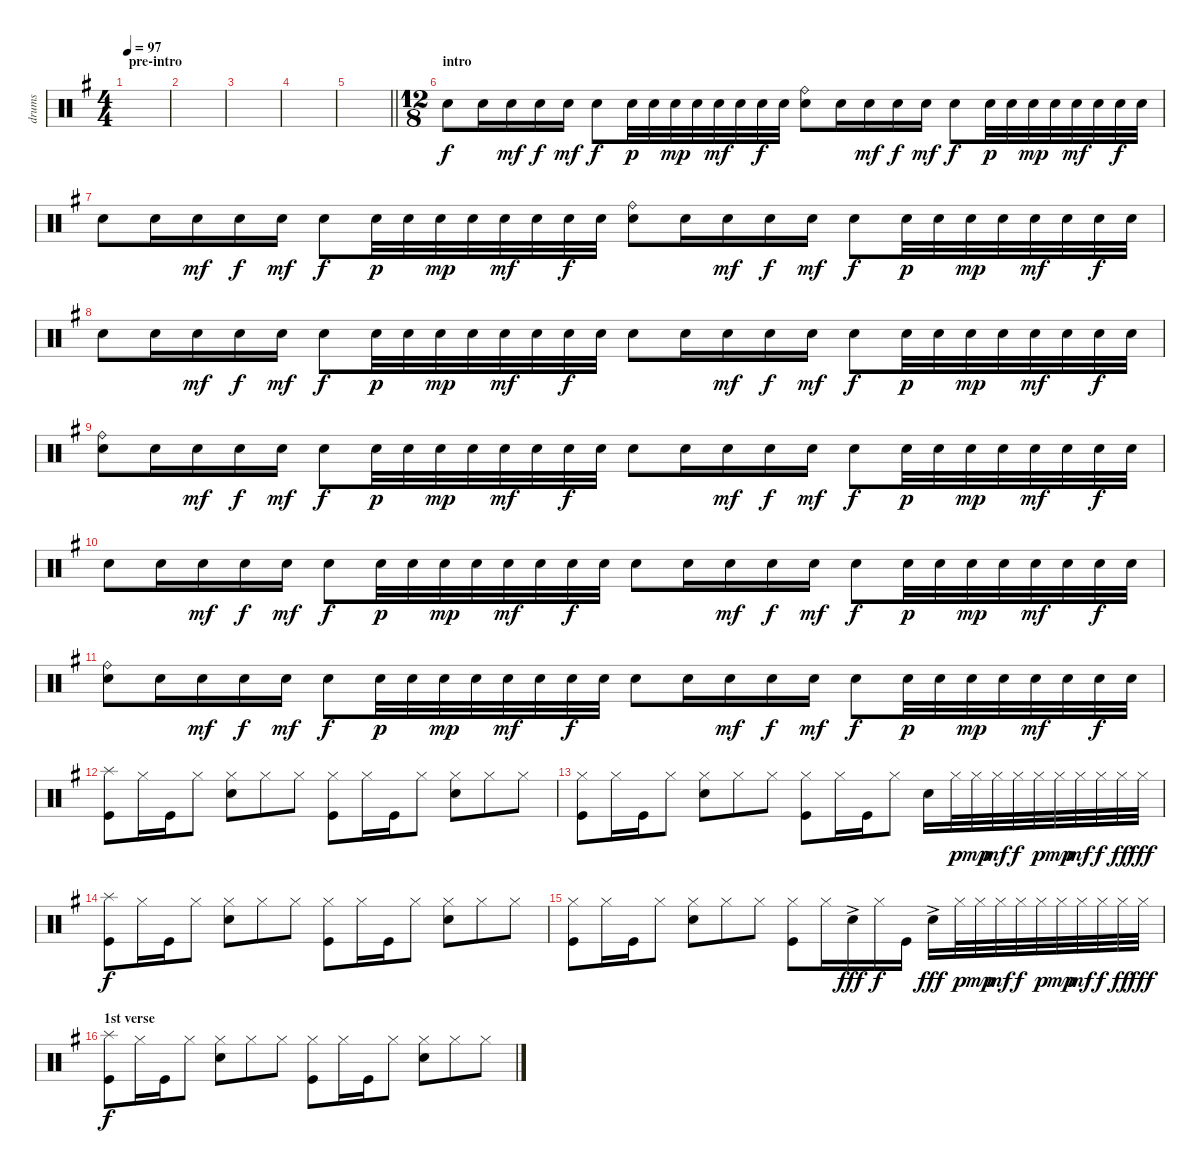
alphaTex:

\track ("drums" "drums") {instrument percussion}
\staff {score}
\articulation defaults
\ts (4 4)
\section ("" "pre-intro")
\tempo 97
\clef neutral
\ks g
|
|
|
|
\barLineRight lightlight
|
\ts (12 8)
\section ("" "intro")
"Electric Snare (hit)".8 "Electric Snare (hit)".16 "Electric Snare (hit)".16{dy mf} "Electric Snare (hit)".16{dy f} "Electric Snare (hit)".16{dy mf} "Electric Snare (hit)".8{dy f} "Electric Snare (hit)".32{dy p} "Electric Snare (hit)".32 "Electric Snare (hit)".32{dy mp} "Electric Snare (hit)".32 "Electric Snare (hit)".32{dy mf} "Electric Snare (hit)".32 "Electric Snare (hit)".32{dy f} "Electric Snare (hit)".32 ("Ride (bell)" "Electric Snare (hit)").8 "Electric Snare (hit)".16 "Electric Snare (hit)".16{dy mf} "Electric Snare (hit)".16{dy f} "Electric Snare (hit)".16{dy mf} "Electric Snare (hit)".8{dy f} "Electric Snare (hit)".32{dy p} "Electric Snare (hit)".32 "Electric Snare (hit)".32{dy mp} "Electric Snare (hit)".32 "Electric Snare (hit)".32{dy mf} "Electric Snare (hit)".32 "Electric Snare (hit)".32{dy f} "Electric Snare (hit)".32 |
"Electric Snare (hit)".8 "Electric Snare (hit)".16 "Electric Snare (hit)".16{dy mf} "Electric Snare (hit)".16{dy f} "Electric Snare (hit)".16{dy mf} "Electric Snare (hit)".8{dy f} "Electric Snare (hit)".32{dy p} "Electric Snare (hit)".32 "Electric Snare (hit)".32{dy mp} "Electric Snare (hit)".32 "Electric Snare (hit)".32{dy mf} "Electric Snare (hit)".32 "Electric Snare (hit)".32{dy f} "Electric Snare (hit)".32 ("Ride (bell)" "Electric Snare (hit)").8 "Electric Snare (hit)".16 "Electric Snare (hit)".16{dy mf} "Electric Snare (hit)".16{dy f} "Electric Snare (hit)".16{dy mf} "Electric Snare (hit)".8{dy f} "Electric Snare (hit)".32{dy p} "Electric Snare (hit)".32 "Electric Snare (hit)".32{dy mp} "Electric Snare (hit)".32 "Electric Snare (hit)".32{dy mf} "Electric Snare (hit)".32 "Electric Snare (hit)".32{dy f} "Electric Snare (hit)".32 |
"Electric Snare (hit)".8 "Electric Snare (hit)".16 "Electric Snare (hit)".16{dy mf} "Electric Snare (hit)".16{dy f} "Electric Snare (hit)".16{dy mf} "Electric Snare (hit)".8{dy f} "Electric Snare (hit)".32{dy p} "Electric Snare (hit)".32 "Electric Snare (hit)".32{dy mp} "Electric Snare (hit)".32 "Electric Snare (hit)".32{dy mf} "Electric Snare (hit)".32 "Electric Snare (hit)".32{dy f} "Electric Snare (hit)".32 "Electric Snare (hit)".8 "Electric Snare (hit)".16 "Electric Snare (hit)".16{dy mf} "Electric Snare (hit)".16{dy f} "Electric Snare (hit)".16{dy mf} "Electric Snare (hit)".8{dy f} "Electric Snare (hit)".32{dy p} "Electric Snare (hit)".32 "Electric Snare (hit)".32{dy mp} "Electric Snare (hit)".32 "Electric Snare (hit)".32{dy mf} "Electric Snare (hit)".32 "Electric Snare (hit)".32{dy f} "Electric Snare (hit)".32 |
("Ride (bell)" "Electric Snare (hit)").8 "Electric Snare (hit)".16 "Electric Snare (hit)".16{dy mf} "Electric Snare (hit)".16{dy f} "Electric Snare (hit)".16{dy mf} "Electric Snare (hit)".8{dy f} "Electric Snare (hit)".32{dy p} "Electric Snare (hit)".32 "Electric Snare (hit)".32{dy mp} "Electric Snare (hit)".32 "Electric Snare (hit)".32{dy mf} "Electric Snare (hit)".32 "Electric Snare (hit)".32{dy f} "Electric Snare (hit)".32 "Electric Snare (hit)".8 "Electric Snare (hit)".16 "Electric Snare (hit)".16{dy mf} "Electric Snare (hit)".16{dy f} "Electric Snare (hit)".16{dy mf} "Electric Snare (hit)".8{dy f} "Electric Snare (hit)".32{dy p} "Electric Snare (hit)".32 "Electric Snare (hit)".32{dy mp} "Electric Snare (hit)".32 "Electric Snare (hit)".32{dy mf} "Electric Snare (hit)".32 "Electric Snare (hit)".32{dy f} "Electric Snare (hit)".32 |
"Electric Snare (hit)".8 "Electric Snare (hit)".16 "Electric Snare (hit)".16{dy mf} "Electric Snare (hit)".16{dy f} "Electric Snare (hit)".16{dy mf} "Electric Snare (hit)".8{dy f} "Electric Snare (hit)".32{dy p} "Electric Snare (hit)".32 "Electric Snare (hit)".32{dy mp} "Electric Snare (hit)".32 "Electric Snare (hit)".32{dy mf} "Electric Snare (hit)".32 "Electric Snare (hit)".32{dy f} "Electric Snare (hit)".32 "Electric Snare (hit)".8 "Electric Snare (hit)".16 "Electric Snare (hit)".16{dy mf} "Electric Snare (hit)".16{dy f} "Electric Snare (hit)".16{dy mf} "Electric Snare (hit)".8{dy f} "Electric Snare (hit)".32{dy p} "Electric Snare (hit)".32 "Electric Snare (hit)".32{dy mp} "Electric Snare (hit)".32 "Electric Snare (hit)".32{dy mf} "Electric Snare (hit)".32 "Electric Snare (hit)".32{dy f} "Electric Snare (hit)".32 |
("Ride (bell)" "Electric Snare (hit)").8 "Electric Snare (hit)".16 "Electric Snare (hit)".16{dy mf} "Electric Snare (hit)".16{dy f} "Electric Snare (hit)".16{dy mf} "Electric Snare (hit)".8{dy f} "Electric Snare (hit)".32{dy p} "Electric Snare (hit)".32 "Electric Snare (hit)".32{dy mp} "Electric Snare (hit)".32 "Electric Snare (hit)".32{dy mf} "Electric Snare (hit)".32 "Electric Snare (hit)".32{dy f} "Electric Snare (hit)".32 "Electric Snare (hit)".8 "Electric Snare (hit)".16 "Electric Snare (hit)".16{dy mf} "Electric Snare (hit)".16{dy f} "Electric Snare (hit)".16{dy mf} "Electric Snare (hit)".8{dy f} "Electric Snare (hit)".32{dy p} "Electric Snare (hit)".32 "Electric Snare (hit)".32{dy mp} "Electric Snare (hit)".32 "Electric Snare (hit)".32{dy mf} "Electric Snare (hit)".32 "Electric Snare (hit)".32{dy f} "Electric Snare (hit)".32 |
("Splash (hit)" "Kick (hit)").8 "Hi-Hat (closed)".16 "Kick (hit)".16 "Hi-Hat (closed)".8 ("Hi-Hat (closed)" "Electric Snare (hit)").8 "Hi-Hat (closed)".8 "Hi-Hat (closed)".8 ("Hi-Hat (closed)" "Kick (hit)").8 "Hi-Hat (closed)".16 "Kick (hit)".16 "Hi-Hat (closed)".8 ("Hi-Hat (closed)" "Electric Snare (hit)").8 "Hi-Hat (closed)".8 "Hi-Hat (closed)".8 |
("Hi-Hat (closed)" "Kick (hit)").8 "Hi-Hat (closed)".16 "Kick (hit)".16 "Hi-Hat (closed)".8 ("Hi-Hat (closed)" "Electric Snare (hit)").8 "Hi-Hat (closed)".8 "Hi-Hat (closed)".8 ("Hi-Hat (closed)" "Kick (hit)").8 "Hi-Hat (closed)".16 "Kick (hit)".16 "Hi-Hat (closed)".8 "Electric Snare (hit)".16 "Hi-Hat (closed)".32{dy p} "Hi-Hat (closed)".32{dy mp} "Hi-Hat (closed)".32{dy mf} "Hi-Hat (closed)".32{dy f} "Hi-Hat (closed)".32{dy p} "Hi-Hat (closed)".32{dy mp} "Hi-Hat (closed)".32{dy mf} "Hi-Hat (closed)".32{dy f} "Hi-Hat (closed)".32{dy ff} "Hi-Hat (closed)".32{dy fff} |
("Splash (hit)" "Kick (hit)").8{dy f} "Hi-Hat (closed)".16 "Kick (hit)".16 "Hi-Hat (closed)".8 ("Hi-Hat (closed)" "Electric Snare (hit)").8 "Hi-Hat (closed)".8 "Hi-Hat (closed)".8 ("Hi-Hat (closed)" "Kick (hit)").8 "Hi-Hat (closed)".16 "Kick (hit)".16 "Hi-Hat (closed)".8 ("Hi-Hat (closed)" "Electric Snare (hit)").8 "Hi-Hat (closed)".8 "Hi-Hat (closed)".8 |
("Hi-Hat (closed)" "Kick (hit)").8 "Hi-Hat (closed)".16 "Kick (hit)".16 "Hi-Hat (closed)".8 ("Hi-Hat (closed)" "Electric Snare (hit)").8 "Hi-Hat (closed)".8 "Hi-Hat (closed)".8 ("Hi-Hat (closed)" "Kick (hit)").8 "Hi-Hat (closed)".16 "Electric Snare (hit)"{ac}.16{dy fff} "Hi-Hat (closed)".16{dy f} "Kick (hit)".16 "Electric Snare (hit)"{ac}.16{dy fff} "Hi-Hat (closed)".32{dy p} "Hi-Hat (closed)".32{dy mp} "Hi-Hat (closed)".32{dy mf} "Hi-Hat (closed)".32{dy f} "Hi-Hat (closed)".32{dy p} "Hi-Hat (closed)".32{dy mp} "Hi-Hat (closed)".32{dy mf} "Hi-Hat (closed)".32{dy f} "Hi-Hat (closed)".32{dy ff} "Hi-Hat (closed)".32{dy fff} |
\section ("" "1st verse")
("Splash (hit)" "Kick (hit)").8{dy f} "Hi-Hat (closed)".16 "Kick (hit)".16 "Hi-Hat (closed)".8 ("Hi-Hat (closed)" "Electric Snare (hit)").8 "Hi-Hat (closed)".8 "Hi-Hat (closed)".8 ("Hi-Hat (closed)" "Kick (hit)").8 "Hi-Hat (closed)".16 "Kick (hit)".16 "Hi-Hat (closed)".8 ("Hi-Hat (closed)" "Electric Snare (hit)").8 "Hi-Hat (closed)".8 "Hi-Hat (closed)".8
